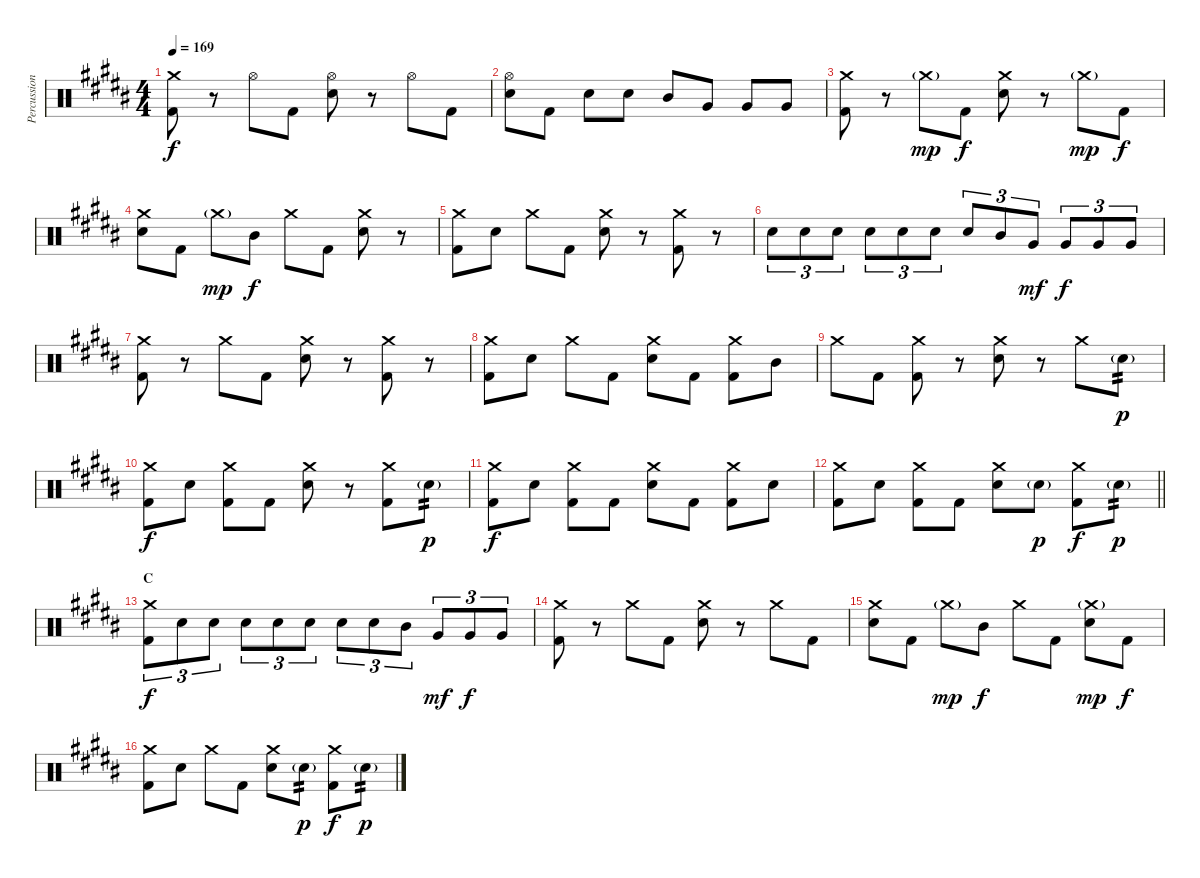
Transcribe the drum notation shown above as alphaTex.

\track ("Percussion" "Percussion") {instrument percussion}
\staff {score}
\articulation defaults
\ts (4 4)
\tempo 169
\clef neutral
\ks g#minor
("Crash medium (hit)" "Kick (hit) 2").8{dy f} r.8 "Hi-Hat (open)".8 "Kick (hit) 2".8 ("Hi-Hat (open)" "Snare (hit) 2").8 r.8 "Hi-Hat (open)".8 "Kick (hit) 2".8 |
("Hi-Hat (open)" "Snare (hit) 2").8 "Kick (hit) 2".8 "Snare (hit) 2".8 "Snare (hit) 2".8 "Mid Tom (hit)".8 "Very Low Tom (hit)".8 "Very Low Tom (hit)".8 "Very Low Tom (hit)".8 |
("Crash medium (hit)" "Kick (hit) 2").8 r.8 "Crash medium (hit)"{g}.8{dy mp} "Kick (hit) 2".8{dy f} ("Crash medium (hit)" "Snare (hit) 2").8 r.8 "Crash medium (hit)"{g}.8{dy mp} "Kick (hit) 2".8{dy f} |
("Crash medium (hit)" "Snare (hit) 2").8 "Kick (hit) 2".8 "Crash medium (hit)"{g}.8{dy mp} "Mid Tom (hit)".8{dy f} "Crash medium (hit)".8 "Kick (hit) 2".8 ("Crash medium (hit)" "Snare (hit) 2").8 r.8 |
("Crash medium (hit)" "Kick (hit) 2").8 "Snare (hit) 2".8 "Crash medium (hit)".8 "Kick (hit) 2".8 ("Crash medium (hit)" "Snare (hit) 2").8 r.8 ("Crash medium (hit)" "Kick (hit) 2").8 r.8 |
"Snare (hit) 2".8{tu (3 2)} "Snare (hit) 2".8{tu (3 2)} "Snare (hit) 2".8{tu (3 2)} "Snare (hit) 2".8{tu (3 2)} "Snare (hit) 2".8{tu (3 2)} "Snare (hit) 2".8{tu (3 2)} "Snare (hit) 2".8{tu (3 2)} "Mid Tom (hit)".8{tu (3 2)} "Very Low Tom (hit)".8{tu (3 2) dy mf} "Very Low Tom (hit)".8{tu (3 2) dy f} "Very Low Tom (hit)".8{tu (3 2)} "Very Low Tom (hit)".8{tu (3 2)} |
("Crash medium (hit)" "Kick (hit) 2").8 r.8 "Crash medium (hit)".8 "Kick (hit) 2".8 ("Crash medium (hit)" "Snare (hit) 2").8 r.8 ("Crash medium (hit)" "Kick (hit) 2").8 r.8 |
("Crash medium (hit)" "Kick (hit) 2").8 "Snare (hit) 2".8 "Crash medium (hit)".8 "Kick (hit) 2".8 ("Crash medium (hit)" "Snare (hit) 2").8 "Kick (hit) 2".8 ("Crash medium (hit)" "Kick (hit) 2").8 "Mid Tom (hit)".8 |
"Crash medium (hit)".8 "Kick (hit) 2".8 ("Crash medium (hit)" "Kick (hit) 2").8 r.8 ("Crash medium (hit)" "Snare (hit) 2").8 r.8 "Crash medium (hit)".8 "Snare (hit) 2"{g}.8{tp 2 dy p} |
("Crash medium (hit)" "Kick (hit) 2").8{dy f} "Snare (hit) 2".8 ("Crash medium (hit)" "Kick (hit) 2").8 "Kick (hit) 2".8 ("Crash medium (hit)" "Snare (hit) 2").8 r.8 ("Crash medium (hit)" "Kick (hit) 2").8 "Snare (hit) 2"{g}.8{tp 2 dy p} |
("Crash medium (hit)" "Kick (hit) 2").8{dy f} "Snare (hit) 2".8 ("Crash medium (hit)" "Kick (hit) 2").8 "Kick (hit) 2".8 ("Crash medium (hit)" "Snare (hit) 2").8 "Kick (hit) 2".8 ("Crash medium (hit)" "Kick (hit) 2").8 "Snare (hit) 2".8 |
\barLineRight lightlight
("Crash medium (hit)" "Kick (hit) 2").8 "Snare (hit) 2".8 ("Crash medium (hit)" "Kick (hit) 2").8 "Kick (hit) 2".8 ("Crash medium (hit)" "Snare (hit) 2").8 "Snare (hit) 2"{g}.8{dy p} ("Crash medium (hit)" "Kick (hit) 2").8{dy f} "Snare (hit) 2"{g}.8{tp 2 dy p} |
\section ("" "C")
("Crash medium (hit)" "Kick (hit) 2").8{tu (3 2) dy f} "Snare (hit) 2".8{tu (3 2)} "Snare (hit) 2".8{tu (3 2)} "Snare (hit) 2".8{tu (3 2)} "Snare (hit) 2".8{tu (3 2)} "Snare (hit) 2".8{tu (3 2)} "Snare (hit) 2".8{tu (3 2)} "Snare (hit) 2".8{tu (3 2)} "Mid Tom (hit)".8{tu (3 2)} "Very Low Tom (hit)".8{tu (3 2) dy mf} "Very Low Tom (hit)".8{tu (3 2) dy f} "Very Low Tom (hit)".8{tu (3 2)} |
("Crash medium (hit)" "Kick (hit) 2").8 r.8 "Crash medium (hit)".8 "Kick (hit) 2".8 ("Crash medium (hit)" "Snare (hit) 2").8 r.8 "Crash medium (hit)".8 "Kick (hit) 2".8 |
("Crash medium (hit)" "Snare (hit) 2").8 "Kick (hit) 2".8 "Crash medium (hit)"{g}.8{dy mp} "Mid Tom (hit)".8{dy f} "Crash medium (hit)".8 "Kick (hit) 2".8 ("Crash medium (hit)"{g} "Snare (hit) 2").8{dy mp} "Kick (hit) 2".8{dy f} |
("Crash medium (hit)" "Kick (hit) 2").8 "Snare (hit) 2".8 "Crash medium (hit)".8 "Kick (hit) 2".8 ("Crash medium (hit)" "Snare (hit) 2").8 "Snare (hit) 2"{g}.8{tp 2 dy p} ("Crash medium (hit)" "Kick (hit) 2").8{dy f} "Snare (hit) 2"{g}.8{tp 2 dy p}
